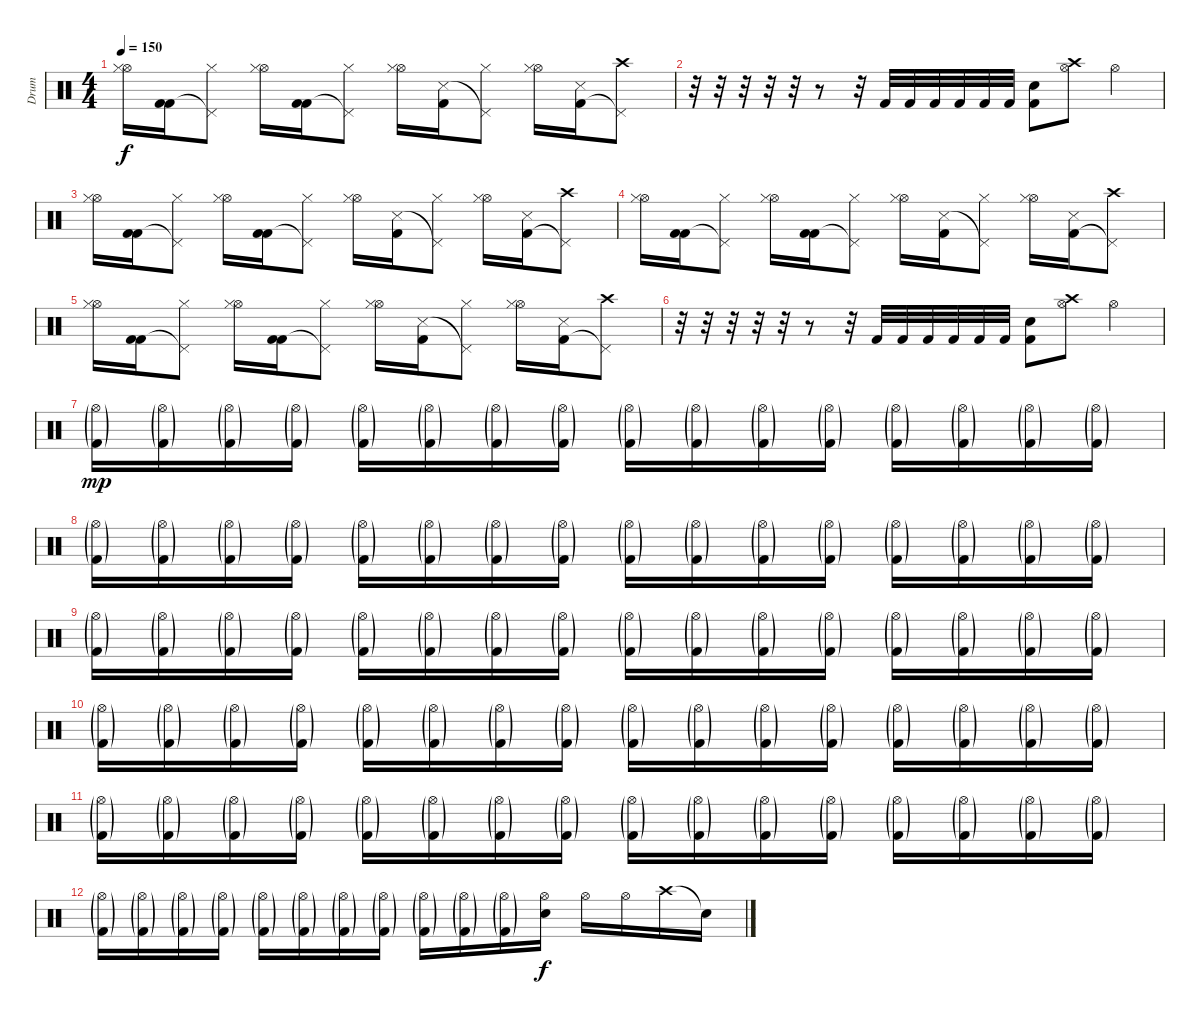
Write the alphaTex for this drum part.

\track ("Drum" "Drum") {instrument percussion}
\staff {score}
\articulation defaults
\ts (4 4)
\tempo 150
\clef neutral
\ks c
("Hi-Hat (open)" "Hi-Hat (closed)").16{dy f} ("Kick (hit) 2" "Kick (hit) 2").16 ("Hi-Hat (closed)" "Pedal Hi-Hat (hit)"{t}).8 ("Hi-Hat (open)" "Hi-Hat (closed)").16 ("Kick (hit) 2" "Kick (hit) 2").16 ("Hi-Hat (closed)" "Pedal Hi-Hat (hit)"{t}).8 ("Hi-Hat (open)" "Hi-Hat (closed)").16 ("Kick (hit) 2" "Snare (side stick) 3").16 ("Hi-Hat (closed)" "Pedal Hi-Hat (hit)"{t}).8 ("Hi-Hat (open)" "Hi-Hat (closed)").16 ("Snare (side stick) 3" "Kick (hit) 2").16 ("Crash high (hit)" "Pedal Hi-Hat (hit)"{t}).8 |
r.32 r.32 r.32 r.32 r.32 r.8 r.32 "Kick (hit) 2".32 "Kick (hit) 2".32 "Kick (hit) 2".32 "Kick (hit) 2".32 "Kick (hit) 2".32 "Kick (hit) 2".32 ("Snare (hit) 2" "Kick (hit) 2").8 ("Hi-Hat (open)" "Crash high (hit)").8 "Hi-Hat (open)".4 |
("Hi-Hat (open)" "Hi-Hat (closed)").16 ("Kick (hit) 2" "Kick (hit) 2").16 ("Hi-Hat (closed)" "Pedal Hi-Hat (hit)"{t}).8 ("Hi-Hat (open)" "Hi-Hat (closed)").16 ("Kick (hit) 2" "Kick (hit) 2").16 ("Hi-Hat (closed)" "Pedal Hi-Hat (hit)"{t}).8 ("Hi-Hat (open)" "Hi-Hat (closed)").16 ("Kick (hit) 2" "Snare (side stick) 3").16 ("Hi-Hat (closed)" "Pedal Hi-Hat (hit)"{t}).8 ("Hi-Hat (open)" "Hi-Hat (closed)").16 ("Snare (side stick) 3" "Kick (hit) 2").16 ("Crash high (hit)" "Pedal Hi-Hat (hit)"{t}).8 |
("Hi-Hat (open)" "Hi-Hat (closed)").16 ("Kick (hit) 2" "Kick (hit) 2").16 ("Hi-Hat (closed)" "Pedal Hi-Hat (hit)"{t}).8 ("Hi-Hat (open)" "Hi-Hat (closed)").16 ("Kick (hit) 2" "Kick (hit) 2").16 ("Hi-Hat (closed)" "Pedal Hi-Hat (hit)"{t}).8 ("Hi-Hat (open)" "Hi-Hat (closed)").16 ("Kick (hit) 2" "Snare (side stick) 3").16 ("Hi-Hat (closed)" "Pedal Hi-Hat (hit)"{t}).8 ("Hi-Hat (open)" "Hi-Hat (closed)").16 ("Snare (side stick) 3" "Kick (hit) 2").16 ("Crash high (hit)" "Pedal Hi-Hat (hit)"{t}).8 |
("Hi-Hat (open)" "Hi-Hat (closed)").16 ("Kick (hit) 2" "Kick (hit) 2").16 ("Hi-Hat (closed)" "Pedal Hi-Hat (hit)"{t}).8 ("Hi-Hat (open)" "Hi-Hat (closed)").16 ("Kick (hit) 2" "Kick (hit) 2").16 ("Hi-Hat (closed)" "Pedal Hi-Hat (hit)"{t}).8 ("Hi-Hat (open)" "Hi-Hat (closed)").16 ("Kick (hit) 2" "Snare (side stick) 3").16 ("Hi-Hat (closed)" "Pedal Hi-Hat (hit)"{t}).8 ("Hi-Hat (open)" "Hi-Hat (closed)").16 ("Snare (side stick) 3" "Kick (hit) 2").16 ("Crash high (hit)" "Pedal Hi-Hat (hit)"{t}).8 |
r.32 r.32 r.32 r.32 r.32 r.8 r.32 "Kick (hit) 2".32 "Kick (hit) 2".32 "Kick (hit) 2".32 "Kick (hit) 2".32 "Kick (hit) 2".32 "Kick (hit) 2".32 ("Snare (hit) 2" "Kick (hit) 2").8 ("Hi-Hat (open)" "Crash high (hit)").8 "Hi-Hat (open)".4 |
("Kick (hit) 2"{g} "Hi-Hat (open)"{g}).16{dy mp} ("Kick (hit) 2"{g} "Hi-Hat (open)"{g}).16 ("Kick (hit) 2"{g} "Hi-Hat (open)"{g}).16 ("Kick (hit) 2"{g} "Hi-Hat (open)"{g}).16 ("Kick (hit) 2"{g} "Hi-Hat (open)"{g}).16 ("Kick (hit) 2"{g} "Hi-Hat (open)"{g}).16 ("Kick (hit) 2"{g} "Hi-Hat (open)"{g}).16 ("Kick (hit) 2"{g} "Hi-Hat (open)"{g}).16 ("Kick (hit) 2"{g} "Hi-Hat (open)"{g}).16 ("Kick (hit) 2"{g} "Hi-Hat (open)"{g}).16 ("Kick (hit) 2"{g} "Hi-Hat (open)"{g}).16 ("Kick (hit) 2"{g} "Hi-Hat (open)"{g}).16 ("Kick (hit) 2"{g} "Hi-Hat (open)"{g}).16 ("Kick (hit) 2"{g} "Hi-Hat (open)"{g}).16 ("Kick (hit) 2"{g} "Hi-Hat (open)"{g}).16 ("Kick (hit) 2"{g} "Hi-Hat (open)"{g}).16 |
("Kick (hit) 2"{g} "Hi-Hat (open)"{g}).16 ("Kick (hit) 2"{g} "Hi-Hat (open)"{g}).16 ("Kick (hit) 2"{g} "Hi-Hat (open)"{g}).16 ("Kick (hit) 2"{g} "Hi-Hat (open)"{g}).16 ("Kick (hit) 2"{g} "Hi-Hat (open)"{g}).16 ("Kick (hit) 2"{g} "Hi-Hat (open)"{g}).16 ("Kick (hit) 2"{g} "Hi-Hat (open)"{g}).16 ("Kick (hit) 2"{g} "Hi-Hat (open)"{g}).16 ("Kick (hit) 2"{g} "Hi-Hat (open)"{g}).16 ("Kick (hit) 2"{g} "Hi-Hat (open)"{g}).16 ("Kick (hit) 2"{g} "Hi-Hat (open)"{g}).16 ("Kick (hit) 2"{g} "Hi-Hat (open)"{g}).16 ("Kick (hit) 2"{g} "Hi-Hat (open)"{g}).16 ("Kick (hit) 2"{g} "Hi-Hat (open)"{g}).16 ("Kick (hit) 2"{g} "Hi-Hat (open)"{g}).16 ("Kick (hit) 2"{g} "Hi-Hat (open)"{g}).16 |
("Kick (hit) 2"{g} "Hi-Hat (open)"{g}).16 ("Kick (hit) 2"{g} "Hi-Hat (open)"{g}).16 ("Kick (hit) 2"{g} "Hi-Hat (open)"{g}).16 ("Kick (hit) 2"{g} "Hi-Hat (open)"{g}).16 ("Kick (hit) 2"{g} "Hi-Hat (open)"{g}).16 ("Kick (hit) 2"{g} "Hi-Hat (open)"{g}).16 ("Kick (hit) 2"{g} "Hi-Hat (open)"{g}).16 ("Kick (hit) 2"{g} "Hi-Hat (open)"{g}).16 ("Kick (hit) 2"{g} "Hi-Hat (open)"{g}).16 ("Kick (hit) 2"{g} "Hi-Hat (open)"{g}).16 ("Kick (hit) 2"{g} "Hi-Hat (open)"{g}).16 ("Kick (hit) 2"{g} "Hi-Hat (open)"{g}).16 ("Kick (hit) 2"{g} "Hi-Hat (open)"{g}).16 ("Kick (hit) 2"{g} "Hi-Hat (open)"{g}).16 ("Kick (hit) 2"{g} "Hi-Hat (open)"{g}).16 ("Kick (hit) 2"{g} "Hi-Hat (open)"{g}).16 |
("Kick (hit) 2"{g} "Hi-Hat (open)"{g}).16 ("Kick (hit) 2"{g} "Hi-Hat (open)"{g}).16 ("Kick (hit) 2"{g} "Hi-Hat (open)"{g}).16 ("Kick (hit) 2"{g} "Hi-Hat (open)"{g}).16 ("Kick (hit) 2"{g} "Hi-Hat (open)"{g}).16 ("Kick (hit) 2"{g} "Hi-Hat (open)"{g}).16 ("Kick (hit) 2"{g} "Hi-Hat (open)"{g}).16 ("Kick (hit) 2"{g} "Hi-Hat (open)"{g}).16 ("Kick (hit) 2"{g} "Hi-Hat (open)"{g}).16 ("Kick (hit) 2"{g} "Hi-Hat (open)"{g}).16 ("Kick (hit) 2"{g} "Hi-Hat (open)"{g}).16 ("Kick (hit) 2"{g} "Hi-Hat (open)"{g}).16 ("Kick (hit) 2"{g} "Hi-Hat (open)"{g}).16 ("Kick (hit) 2"{g} "Hi-Hat (open)"{g}).16 ("Kick (hit) 2"{g} "Hi-Hat (open)"{g}).16 ("Kick (hit) 2"{g} "Hi-Hat (open)"{g}).16 |
("Kick (hit) 2"{g} "Hi-Hat (open)"{g}).16 ("Kick (hit) 2"{g} "Hi-Hat (open)"{g}).16 ("Kick (hit) 2"{g} "Hi-Hat (open)"{g}).16 ("Kick (hit) 2"{g} "Hi-Hat (open)"{g}).16 ("Kick (hit) 2"{g} "Hi-Hat (open)"{g}).16 ("Kick (hit) 2"{g} "Hi-Hat (open)"{g}).16 ("Kick (hit) 2"{g} "Hi-Hat (open)"{g}).16 ("Kick (hit) 2"{g} "Hi-Hat (open)"{g}).16 ("Kick (hit) 2"{g} "Hi-Hat (open)"{g}).16 ("Kick (hit) 2"{g} "Hi-Hat (open)"{g}).16 ("Kick (hit) 2"{g} "Hi-Hat (open)"{g}).16 ("Kick (hit) 2"{g} "Hi-Hat (open)"{g}).16 ("Kick (hit) 2"{g} "Hi-Hat (open)"{g}).16 ("Kick (hit) 2"{g} "Hi-Hat (open)"{g}).16 ("Kick (hit) 2"{g} "Hi-Hat (open)"{g}).16 ("Kick (hit) 2"{g} "Hi-Hat (open)"{g}).16 |
("Kick (hit) 2"{g} "Hi-Hat (open)"{g}).16 ("Kick (hit) 2"{g} "Hi-Hat (open)"{g}).16 ("Kick (hit) 2"{g} "Hi-Hat (open)"{g}).16 ("Kick (hit) 2"{g} "Hi-Hat (open)"{g}).16 ("Kick (hit) 2"{g} "Hi-Hat (open)"{g}).16 ("Kick (hit) 2"{g} "Hi-Hat (open)"{g}).16 ("Kick (hit) 2"{g} "Hi-Hat (open)"{g}).16 ("Kick (hit) 2"{g} "Hi-Hat (open)"{g}).16 ("Kick (hit) 2"{g} "Hi-Hat (open)"{g}).16 ("Kick (hit) 2"{g} "Hi-Hat (open)"{g}).16 ("Kick (hit) 2"{g} "Hi-Hat (open)"{g}).16 ("Snare (hit) 2" "Hi-Hat (open)").16{dy f} "Hi-Hat (open)".16 "Hi-Hat (open)".16 "Crash high (hit)".16 "Snare (hit)"{t}.16
